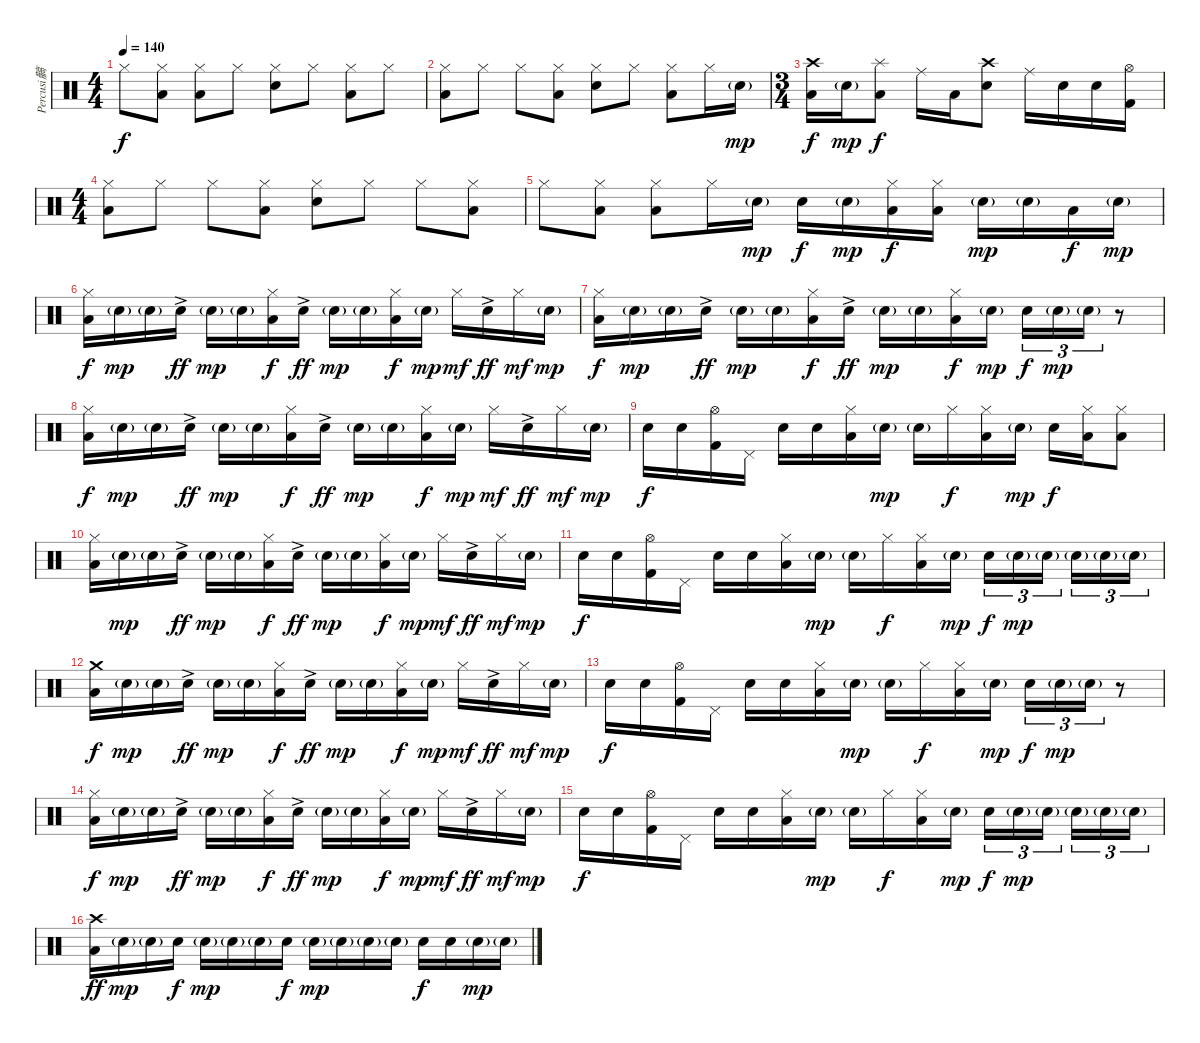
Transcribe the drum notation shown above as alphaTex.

\track ("Percusi髇" "Percusi髇") {instrument percussion}
\staff {score}
\articulation defaults
\ts (4 4)
\tempo 140
\clef neutral
\ks c "Hi-Hat (closed)".8{dy f}
("Hi-Hat (closed)" "Low Floor Tom (hit)").8 ("Hi-Hat (closed)" "Low Floor Tom (hit)").8 "Hi-Hat (closed)".8 ("Hi-Hat (closed)" "Snare (hit) 2").8 "Hi-Hat (closed)".8 ("Hi-Hat (closed)" "Low Floor Tom (hit)").8 "Hi-Hat (closed)".8 |
("Hi-Hat (closed)" "Low Floor Tom (hit)").8 "Hi-Hat (closed)".8 "Hi-Hat (closed)".8 ("Hi-Hat (closed)" "Low Floor Tom (hit)").8 ("Hi-Hat (closed)" "Snare (hit) 2").8 "Hi-Hat (closed)".8 ("Hi-Hat (closed)" "Low Floor Tom (hit)").8 "Hi-Hat (closed)".16 "Snare (hit) 2"{g}.16{dy mp} |
\ts (3 4)
("Crash high (hit)" "Low Floor Tom (hit)").16{dy f} "Snare (hit) 2"{g}.16{dy mp} ("Splash (hit)" "Low Floor Tom (hit)").8{dy f} "Ride (middle)".16 "Low Floor Tom (hit)".16 ("Crash high (hit)" "Snare (hit) 2").8 "Ride (middle)".16 "Snare (hit) 2".16 "Snare (hit) 2".16 ("Hi-Hat (open)" "Kick (hit) 2").16 |
\ts (4 4)
("Hi-Hat (closed)" "Low Floor Tom (hit)").8 "Hi-Hat (closed)".8 "Hi-Hat (closed)".8 ("Hi-Hat (closed)" "Low Floor Tom (hit)").8 ("Hi-Hat (closed)" "Snare (hit) 2").8 "Hi-Hat (closed)".8 "Hi-Hat (closed)".8 ("Hi-Hat (closed)" "Low Floor Tom (hit)").8 |
"Hi-Hat (closed)".8 ("Hi-Hat (closed)" "Low Floor Tom (hit)").8 ("Hi-Hat (closed)" "Low Floor Tom (hit)").8 "Hi-Hat (closed)".16 "Snare (hit) 2"{g}.16{dy mp} "Snare (hit) 2".16{dy f} "Snare (hit) 2"{g}.16{dy mp} ("Hi-Hat (closed)" "Low Floor Tom (hit)").16{dy f} ("Hi-Hat (closed)" "Low Floor Tom (hit)").16 "Snare (hit) 2"{g}.16{dy mp} "Snare (hit) 2"{g}.16 "Low Tom (hit)".16{dy f} "Snare (hit) 2"{g}.16{dy mp} |
("Hi-Hat (closed)" "Low Floor Tom (hit)").16{dy f} "Snare (hit) 2"{g}.16{dy mp} "Snare (hit) 2"{g}.16 "Snare (hit) 2"{ac}.16{dy ff} "Snare (hit) 2"{g}.16{dy mp} "Snare (hit) 2"{g}.16 ("Hi-Hat (closed)" "Low Floor Tom (hit)").16{dy f} "Snare (hit) 2"{ac}.16{dy ff} "Snare (hit) 2"{g}.16{dy mp} "Snare (hit) 2"{g}.16 ("Hi-Hat (closed)" "Low Floor Tom (hit)").16{dy f} "Snare (hit) 2"{g}.16{dy mp} "Hi-Hat (closed)".16{dy mf} "Snare (hit) 2"{ac}.16{dy ff} "Hi-Hat (closed)".16{dy mf} "Snare (hit) 2"{g}.16{dy mp} |
("Hi-Hat (closed)" "Low Floor Tom (hit)").16{dy f} "Snare (hit) 2"{g}.16{dy mp} "Snare (hit) 2"{g}.16 "Snare (hit) 2"{ac}.16{dy ff} "Snare (hit) 2"{g}.16{dy mp} "Snare (hit) 2"{g}.16 ("Hi-Hat (closed)" "Low Floor Tom (hit)").16{dy f} "Snare (hit) 2"{ac}.16{dy ff} "Snare (hit) 2"{g}.16{dy mp} "Snare (hit) 2"{g}.16 ("Hi-Hat (closed)" "Low Floor Tom (hit)").16{dy f} "Snare (hit) 2"{g}.16{dy mp} "Electric Snare (hit)".16{tu (3 2) dy f} "Electric Snare (hit)"{g}.16{tu (3 2) dy mp} "Electric Snare (hit)"{g}.16{tu (3 2)} r.8 |
("Hi-Hat (closed)" "Low Floor Tom (hit)").16{dy f} "Snare (hit) 2"{g}.16{dy mp} "Snare (hit) 2"{g}.16 "Snare (hit) 2"{ac}.16{dy ff} "Snare (hit) 2"{g}.16{dy mp} "Snare (hit) 2"{g}.16 ("Hi-Hat (closed)" "Low Floor Tom (hit)").16{dy f} "Snare (hit) 2"{ac}.16{dy ff} "Snare (hit) 2"{g}.16{dy mp} "Snare (hit) 2"{g}.16 ("Hi-Hat (closed)" "Low Floor Tom (hit)").16{dy f} "Snare (hit) 2"{g}.16{dy mp} "Hi-Hat (closed)".16{dy mf} "Snare (hit) 2"{ac}.16{dy ff} "Hi-Hat (closed)".16{dy mf} "Snare (hit) 2"{g}.16{dy mp} |
"Snare (hit) 2".16{dy f} "Snare (hit) 2".16 ("Hi-Hat (open)" "Kick (hit) 2").16 "Pedal Hi-Hat (hit)".16 "Snare (hit) 2".16 "Snare (hit) 2".16 ("Hi-Hat (closed)" "Low Floor Tom (hit)").16 "Snare (hit) 2"{g}.16{dy mp} "Snare (hit) 2"{g}.16 "Hi-Hat (closed)".16{dy f} ("Hi-Hat (closed)" "Low Floor Tom (hit)").16 "Snare (hit) 2"{g}.16{dy mp} "Snare (hit) 2".16{dy f} ("Hi-Hat (closed)" "Low Floor Tom (hit)").16 ("Hi-Hat (closed)" "Low Floor Tom (hit)").8 |
("Hi-Hat (closed)" "Low Floor Tom (hit)").16 "Snare (hit) 2"{g}.16{dy mp} "Snare (hit) 2"{g}.16 "Snare (hit) 2"{ac}.16{dy ff} "Snare (hit) 2"{g}.16{dy mp} "Snare (hit) 2"{g}.16 ("Hi-Hat (closed)" "Low Floor Tom (hit)").16{dy f} "Snare (hit) 2"{ac}.16{dy ff} "Snare (hit) 2"{g}.16{dy mp} "Snare (hit) 2"{g}.16 ("Hi-Hat (closed)" "Low Floor Tom (hit)").16{dy f} "Snare (hit) 2"{g}.16{dy mp} "Hi-Hat (closed)".16{dy mf} "Snare (hit) 2"{ac}.16{dy ff} "Hi-Hat (closed)".16{dy mf} "Snare (hit) 2"{g}.16{dy mp} |
"Snare (hit) 2".16{dy f} "Snare (hit) 2".16 ("Hi-Hat (open)" "Kick (hit) 2").16 "Pedal Hi-Hat (hit)".16 "Snare (hit) 2".16 "Snare (hit) 2".16 ("Hi-Hat (closed)" "Low Floor Tom (hit)").16 "Snare (hit) 2"{g}.16{dy mp} "Snare (hit) 2"{g}.16 "Hi-Hat (closed)".16{dy f} ("Hi-Hat (closed)" "Low Floor Tom (hit)").16 "Snare (hit) 2"{g}.16{dy mp} "Snare (hit) 2".16{tu (3 2) dy f} "Snare (hit) 2"{g}.16{tu (3 2) dy mp} "Snare (hit) 2"{g}.16{tu (3 2) beam splitsecondary} "Snare (hit) 2"{g}.16{tu (3 2)} "Snare (hit) 2"{g}.16{tu (3 2)} "Snare (hit) 2"{g}.16{tu (3 2)} |
("Crash medium (hit)" "Low Floor Tom (hit)").16{dy f} "Snare (hit) 2"{g}.16{dy mp} "Snare (hit) 2"{g}.16 "Snare (hit) 2"{ac}.16{dy ff} "Snare (hit) 2"{g}.16{dy mp} "Snare (hit) 2"{g}.16 ("Hi-Hat (closed)" "Low Floor Tom (hit)").16{dy f} "Snare (hit) 2"{ac}.16{dy ff} "Snare (hit) 2"{g}.16{dy mp} "Snare (hit) 2"{g}.16 ("Hi-Hat (closed)" "Low Floor Tom (hit)").16{dy f} "Snare (hit) 2"{g}.16{dy mp} "Hi-Hat (closed)".16{dy mf} "Snare (hit) 2"{ac}.16{dy ff} "Hi-Hat (closed)".16{dy mf} "Snare (hit) 2"{g}.16{dy mp} |
"Snare (hit) 2".16{dy f} "Snare (hit) 2".16 ("Hi-Hat (open)" "Kick (hit) 2").16 "Pedal Hi-Hat (hit)".16 "Snare (hit) 2".16 "Snare (hit) 2".16 ("Hi-Hat (closed)" "Low Floor Tom (hit)").16 "Snare (hit) 2"{g}.16{dy mp} "Snare (hit) 2"{g}.16 "Hi-Hat (closed)".16{dy f} ("Hi-Hat (closed)" "Low Floor Tom (hit)").16 "Snare (hit) 2"{g}.16{dy mp} "Electric Snare (hit)".16{tu (3 2) dy f} "Electric Snare (hit)"{g}.16{tu (3 2) dy mp} "Electric Snare (hit)"{g}.16{tu (3 2)} r.8 |
("Hi-Hat (closed)" "Low Floor Tom (hit)").16{dy f} "Snare (hit) 2"{g}.16{dy mp} "Snare (hit) 2"{g}.16 "Snare (hit) 2"{ac}.16{dy ff} "Snare (hit) 2"{g}.16{dy mp} "Snare (hit) 2"{g}.16 ("Hi-Hat (closed)" "Low Floor Tom (hit)").16{dy f} "Snare (hit) 2"{ac}.16{dy ff} "Snare (hit) 2"{g}.16{dy mp} "Snare (hit) 2"{g}.16 ("Hi-Hat (closed)" "Low Floor Tom (hit)").16{dy f} "Snare (hit) 2"{g}.16{dy mp} "Hi-Hat (closed)".16{dy mf} "Snare (hit) 2"{ac}.16{dy ff} "Hi-Hat (closed)".16{dy mf} "Snare (hit) 2"{g}.16{dy mp} |
"Snare (hit) 2".16{dy f} "Snare (hit) 2".16 ("Hi-Hat (open)" "Kick (hit) 2").16 "Pedal Hi-Hat (hit)".16 "Snare (hit) 2".16 "Snare (hit) 2".16 ("Hi-Hat (closed)" "Low Floor Tom (hit)").16 "Snare (hit) 2"{g}.16{dy mp} "Snare (hit) 2"{g}.16 "Hi-Hat (closed)".16{dy f} ("Hi-Hat (closed)" "Low Floor Tom (hit)").16 "Snare (hit) 2"{g}.16{dy mp} "Snare (hit) 2".16{tu (3 2) dy f} "Snare (hit) 2"{g}.16{tu (3 2) dy mp} "Snare (hit) 2"{g}.16{tu (3 2) beam splitsecondary} "Snare (hit) 2"{g}.16{tu (3 2)} "Snare (hit) 2"{g}.16{tu (3 2)} "Snare (hit) 2"{g}.16{tu (3 2)} |
("Crash high (hit)" "Low Floor Tom (hit)").16{dy ff} "Snare (hit) 2"{g}.16{dy mp} "Snare (hit) 2"{g}.16 "Snare (hit) 2".16{dy f} "Snare (hit) 2"{g}.16{dy mp} "Snare (hit) 2"{g}.16 "Snare (hit) 2"{g}.16 "Snare (hit) 2".16{dy f} "Snare (hit) 2"{g}.16{dy mp} "Snare (hit) 2"{g}.16 "Snare (hit) 2"{g}.16 "Snare (hit) 2"{g}.16 "Snare (hit) 2".16{dy f} "Snare (hit) 2".16 "Snare (hit) 2"{g}.16{dy mp} "Snare (hit) 2"{g}.16
